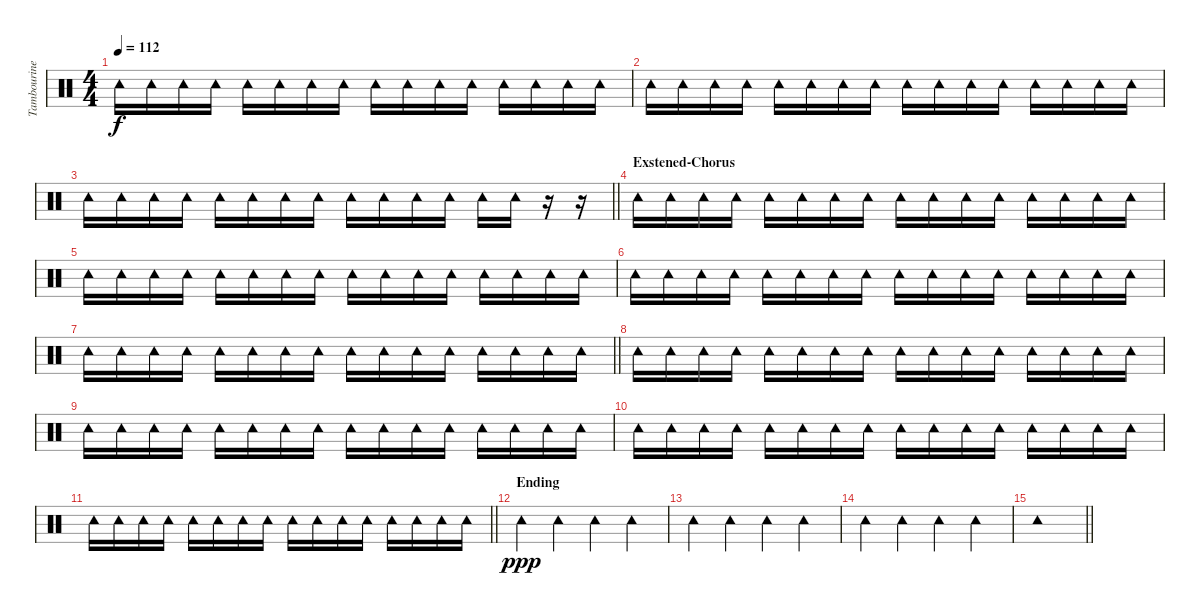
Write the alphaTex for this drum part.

\track ("Tambourine" "Tambourine") {instrument percussion}
\staff {score}
\articulation defaults
\ts (4 4)
\tempo 112
\clef neutral
\ks c "Tambourine (hit)".16{dy f} "Tambourine (hit)".16 "Tambourine (hit)".16 "Tambourine (hit)".16 "Tambourine (hit)".16 "Tambourine (hit)".16 "Tambourine (hit)".16 "Tambourine (hit)".16 "Tambourine (hit)".16 "Tambourine (hit)".16 "Tambourine (hit)".16 "Tambourine (hit)".16 "Tambourine (hit)".16 "Tambourine (hit)".16 "Tambourine (hit)".16 "Tambourine (hit)".16
|
"Tambourine (hit)".16 "Tambourine (hit)".16 "Tambourine (hit)".16 "Tambourine (hit)".16 "Tambourine (hit)".16 "Tambourine (hit)".16 "Tambourine (hit)".16 "Tambourine (hit)".16 "Tambourine (hit)".16 "Tambourine (hit)".16 "Tambourine (hit)".16 "Tambourine (hit)".16 "Tambourine (hit)".16 "Tambourine (hit)".16 "Tambourine (hit)".16 "Tambourine (hit)".16 |
\barLineRight lightlight "Tambourine (hit)".16 "Tambourine (hit)".16 "Tambourine (hit)".16 "Tambourine (hit)".16 "Tambourine (hit)".16 "Tambourine (hit)".16 "Tambourine (hit)".16 "Tambourine (hit)".16 "Tambourine (hit)".16 "Tambourine (hit)".16 "Tambourine (hit)".16 "Tambourine (hit)".16 "Tambourine (hit)".16 "Tambourine (hit)".16
r.16 r.16 |
\section ("" "Exstened-Chorus")
"Tambourine (hit)".16 "Tambourine (hit)".16 "Tambourine (hit)".16 "Tambourine (hit)".16 "Tambourine (hit)".16 "Tambourine (hit)".16 "Tambourine (hit)".16 "Tambourine (hit)".16 "Tambourine (hit)".16 "Tambourine (hit)".16 "Tambourine (hit)".16 "Tambourine (hit)".16 "Tambourine (hit)".16 "Tambourine (hit)".16 "Tambourine (hit)".16 "Tambourine (hit)".16 |
"Tambourine (hit)".16 "Tambourine (hit)".16 "Tambourine (hit)".16 "Tambourine (hit)".16 "Tambourine (hit)".16 "Tambourine (hit)".16 "Tambourine (hit)".16 "Tambourine (hit)".16 "Tambourine (hit)".16 "Tambourine (hit)".16 "Tambourine (hit)".16 "Tambourine (hit)".16 "Tambourine (hit)".16 "Tambourine (hit)".16 "Tambourine (hit)".16 "Tambourine (hit)".16 |
"Tambourine (hit)".16 "Tambourine (hit)".16 "Tambourine (hit)".16 "Tambourine (hit)".16 "Tambourine (hit)".16 "Tambourine (hit)".16 "Tambourine (hit)".16 "Tambourine (hit)".16 "Tambourine (hit)".16 "Tambourine (hit)".16 "Tambourine (hit)".16 "Tambourine (hit)".16 "Tambourine (hit)".16 "Tambourine (hit)".16 "Tambourine (hit)".16 "Tambourine (hit)".16 |
\barLineRight lightlight "Tambourine (hit)".16 "Tambourine (hit)".16 "Tambourine (hit)".16 "Tambourine (hit)".16 "Tambourine (hit)".16 "Tambourine (hit)".16 "Tambourine (hit)".16 "Tambourine (hit)".16 "Tambourine (hit)".16 "Tambourine (hit)".16 "Tambourine (hit)".16 "Tambourine (hit)".16 "Tambourine (hit)".16 "Tambourine (hit)".16 "Tambourine (hit)".16 "Tambourine (hit)".16
|
"Tambourine (hit)".16 "Tambourine (hit)".16 "Tambourine (hit)".16 "Tambourine (hit)".16 "Tambourine (hit)".16 "Tambourine (hit)".16 "Tambourine (hit)".16 "Tambourine (hit)".16 "Tambourine (hit)".16 "Tambourine (hit)".16 "Tambourine (hit)".16 "Tambourine (hit)".16 "Tambourine (hit)".16 "Tambourine (hit)".16 "Tambourine (hit)".16 "Tambourine (hit)".16 |
"Tambourine (hit)".16 "Tambourine (hit)".16 "Tambourine (hit)".16 "Tambourine (hit)".16 "Tambourine (hit)".16 "Tambourine (hit)".16 "Tambourine (hit)".16 "Tambourine (hit)".16 "Tambourine (hit)".16 "Tambourine (hit)".16 "Tambourine (hit)".16 "Tambourine (hit)".16 "Tambourine (hit)".16 "Tambourine (hit)".16 "Tambourine (hit)".16 "Tambourine (hit)".16 |
"Tambourine (hit)".16 "Tambourine (hit)".16 "Tambourine (hit)".16 "Tambourine (hit)".16 "Tambourine (hit)".16 "Tambourine (hit)".16 "Tambourine (hit)".16 "Tambourine (hit)".16 "Tambourine (hit)".16 "Tambourine (hit)".16 "Tambourine (hit)".16 "Tambourine (hit)".16 "Tambourine (hit)".16 "Tambourine (hit)".16 "Tambourine (hit)".16 "Tambourine (hit)".16 |
\barLineRight lightlight "Tambourine (hit)".16 "Tambourine (hit)".16 "Tambourine (hit)".16 "Tambourine (hit)".16 "Tambourine (hit)".16 "Tambourine (hit)".16 "Tambourine (hit)".16 "Tambourine (hit)".16 "Tambourine (hit)".16 "Tambourine (hit)".16 "Tambourine (hit)".16 "Tambourine (hit)".16 "Tambourine (hit)".16 "Tambourine (hit)".16 "Tambourine (hit)".16 "Tambourine (hit)".16
|
\section ("" "Ending")
"Tambourine (hit)".4{dy ppp} "Tambourine (hit)".4 "Tambourine (hit)".4 "Tambourine (hit)".4 |
"Tambourine (hit)".4 "Tambourine (hit)".4 "Tambourine (hit)".4 "Tambourine (hit)".4 |
"Tambourine (hit)".4 "Tambourine (hit)".4 "Tambourine (hit)".4 "Tambourine (hit)".4 |
\barLineRight lightlight "Tambourine (hit)".1
